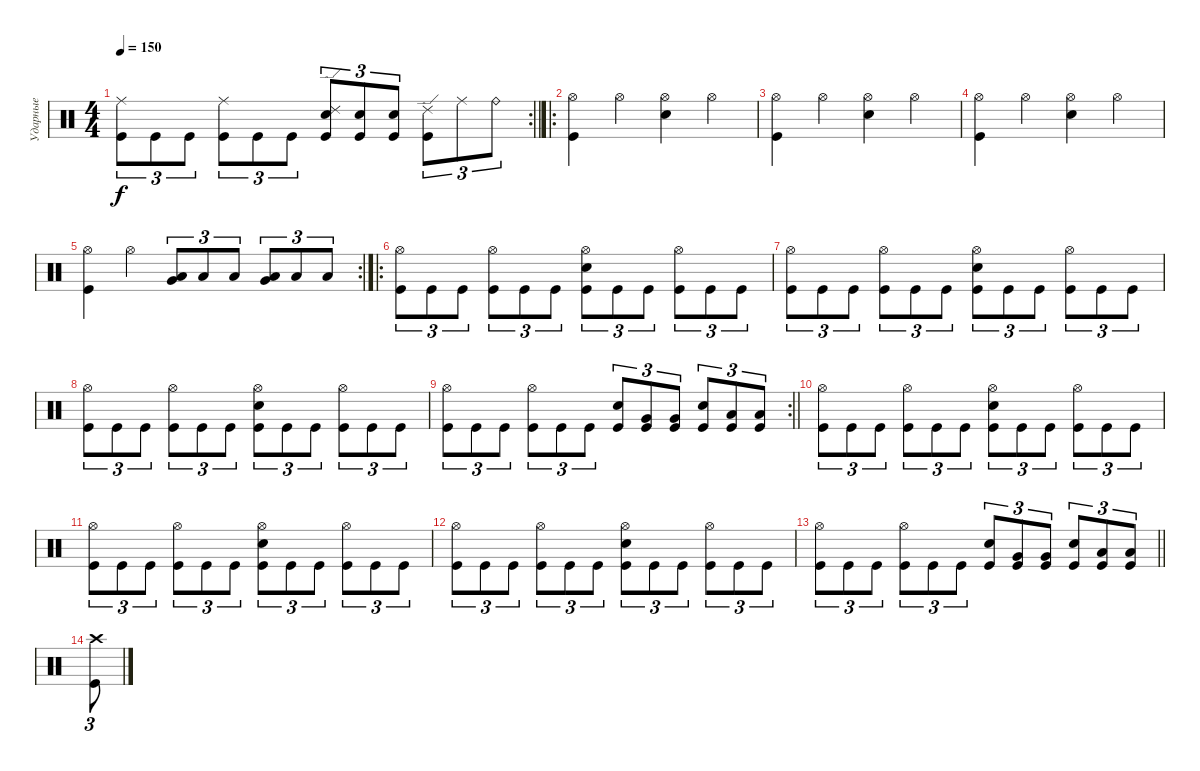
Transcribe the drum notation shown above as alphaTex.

\track ("Ударные" "Ударные") {instrument percussion}
\staff {score}
\articulation defaults
\rc 2
\ts (4 4)
\tempo 150
\clef neutral
\barLineRight lightlight
\ks c
("Ride (middle)" "Kick (hit)").8{tu (3 2) dy f} "Kick (hit)".8{tu (3 2)} "Kick (hit)".8{tu (3 2)} ("Ride (middle)" "Kick (hit)").8{tu (3 2)} "Kick (hit)".8{tu (3 2)} "Kick (hit)".8{tu (3 2)} ("Ride (edge) 2" "Electric Snare (hit)" "Kick (hit)").8{tu (3 2)} ("Electric Snare (hit)" "Kick (hit)").8{tu (3 2)} ("Electric Snare (hit)" "Kick (hit)").8{tu (3 2)} ("Ride (edge) 2" "Kick (hit)").8{tu (3 2)} "Ride (middle)".8{tu (3 2)} "Ride (bell)".8{tu (3 2)} |
\ro
\section ("" " ")
("Kick (hit)" "Hi-Hat (open)").4 "Hi-Hat (open)".4 ("Electric Snare (hit)" "Hi-Hat (open)").4 "Hi-Hat (open)".4 |
("Kick (hit)" "Hi-Hat (open)").4 "Hi-Hat (open)".4 ("Electric Snare (hit)" "Hi-Hat (open)").4 "Hi-Hat (open)".4 |
("Kick (hit)" "Hi-Hat (open)").4 "Hi-Hat (open)".4 ("Electric Snare (hit)" "Hi-Hat (open)").4 "Hi-Hat (open)".4 |
\rc 2
("Kick (hit)" "Hi-Hat (open)").4 "Hi-Hat (open)".4 ("Very Low Tom (hit)" "Low Floor Tom (hit)").8{tu (3 2)} "Low Floor Tom (hit)".8{tu (3 2)} "Low Floor Tom (hit)".8{tu (3 2)} ("Very Low Tom (hit)" "Low Floor Tom (hit)").8{tu (3 2)} "Low Floor Tom (hit)".8{tu (3 2)} "Low Floor Tom (hit)".8{tu (3 2)} |
\ro
("Hi-Hat (open)" "Kick (hit)").8{tu (3 2)} "Kick (hit)".8{tu (3 2)} "Kick (hit)".8{tu (3 2)} ("Hi-Hat (open)" "Kick (hit)").8{tu (3 2)} "Kick (hit)".8{tu (3 2)} "Kick (hit)".8{tu (3 2)} ("Electric Snare (hit)" "Hi-Hat (open)" "Kick (hit)").8{tu (3 2)} "Kick (hit)".8{tu (3 2)} "Kick (hit)".8{tu (3 2)} ("Hi-Hat (open)" "Kick (hit)").8{tu (3 2)} "Kick (hit)".8{tu (3 2)} "Kick (hit)".8{tu (3 2)} |
("Hi-Hat (open)" "Kick (hit)").8{tu (3 2)} "Kick (hit)".8{tu (3 2)} "Kick (hit)".8{tu (3 2)} ("Hi-Hat (open)" "Kick (hit)").8{tu (3 2)} "Kick (hit)".8{tu (3 2)} "Kick (hit)".8{tu (3 2)} ("Electric Snare (hit)" "Hi-Hat (open)" "Kick (hit)").8{tu (3 2)} "Kick (hit)".8{tu (3 2)} "Kick (hit)".8{tu (3 2)} ("Hi-Hat (open)" "Kick (hit)").8{tu (3 2)} "Kick (hit)".8{tu (3 2)} "Kick (hit)".8{tu (3 2)} |
("Hi-Hat (open)" "Kick (hit)").8{tu (3 2)} "Kick (hit)".8{tu (3 2)} "Kick (hit)".8{tu (3 2)} ("Hi-Hat (open)" "Kick (hit)").8{tu (3 2)} "Kick (hit)".8{tu (3 2)} "Kick (hit)".8{tu (3 2)} ("Electric Snare (hit)" "Hi-Hat (open)" "Kick (hit)").8{tu (3 2)} "Kick (hit)".8{tu (3 2)} "Kick (hit)".8{tu (3 2)} ("Hi-Hat (open)" "Kick (hit)").8{tu (3 2)} "Kick (hit)".8{tu (3 2)} "Kick (hit)".8{tu (3 2)} |
\rc 2
\barLineRight lightlight
("Hi-Hat (open)" "Kick (hit)").8{tu (3 2)} "Kick (hit)".8{tu (3 2)} "Kick (hit)".8{tu (3 2)} ("Hi-Hat (open)" "Kick (hit)").8{tu (3 2)} "Kick (hit)".8{tu (3 2)} "Kick (hit)".8{tu (3 2)} ("Electric Snare (hit)" "Kick (hit)").8{tu (3 2)} ("Very Low Tom (hit)" "Kick (hit)").8{tu (3 2)} ("Very Low Tom (hit)" "Kick (hit)").8{tu (3 2)} ("Electric Snare (hit)" "Kick (hit)").8{tu (3 2)} ("Low Floor Tom (hit)" "Kick (hit)").8{tu (3 2)} ("Low Floor Tom (hit)" "Kick (hit)").8{tu (3 2)} |
("Hi-Hat (open)" "Kick (hit)").8{tu (3 2)} "Kick (hit)".8{tu (3 2)} "Kick (hit)".8{tu (3 2)} ("Hi-Hat (open)" "Kick (hit)").8{tu (3 2)} "Kick (hit)".8{tu (3 2)} "Kick (hit)".8{tu (3 2)} ("Electric Snare (hit)" "Hi-Hat (open)" "Kick (hit)").8{tu (3 2)} "Kick (hit)".8{tu (3 2)} "Kick (hit)".8{tu (3 2)} ("Hi-Hat (open)" "Kick (hit)").8{tu (3 2)} "Kick (hit)".8{tu (3 2)} "Kick (hit)".8{tu (3 2)} |
("Hi-Hat (open)" "Kick (hit)").8{tu (3 2)} "Kick (hit)".8{tu (3 2)} "Kick (hit)".8{tu (3 2)} ("Hi-Hat (open)" "Kick (hit)").8{tu (3 2)} "Kick (hit)".8{tu (3 2)} "Kick (hit)".8{tu (3 2)} ("Electric Snare (hit)" "Hi-Hat (open)" "Kick (hit)").8{tu (3 2)} "Kick (hit)".8{tu (3 2)} "Kick (hit)".8{tu (3 2)} ("Hi-Hat (open)" "Kick (hit)").8{tu (3 2)} "Kick (hit)".8{tu (3 2)} "Kick (hit)".8{tu (3 2)} |
("Hi-Hat (open)" "Kick (hit)").8{tu (3 2)} "Kick (hit)".8{tu (3 2)} "Kick (hit)".8{tu (3 2)} ("Hi-Hat (open)" "Kick (hit)").8{tu (3 2)} "Kick (hit)".8{tu (3 2)} "Kick (hit)".8{tu (3 2)} ("Electric Snare (hit)" "Hi-Hat (open)" "Kick (hit)").8{tu (3 2)} "Kick (hit)".8{tu (3 2)} "Kick (hit)".8{tu (3 2)} ("Hi-Hat (open)" "Kick (hit)").8{tu (3 2)} "Kick (hit)".8{tu (3 2)} "Kick (hit)".8{tu (3 2)} |
\barLineRight lightlight
("Hi-Hat (open)" "Kick (hit)").8{tu (3 2)} "Kick (hit)".8{tu (3 2)} "Kick (hit)".8{tu (3 2)} ("Hi-Hat (open)" "Kick (hit)").8{tu (3 2)} "Kick (hit)".8{tu (3 2)} "Kick (hit)".8{tu (3 2)} ("Electric Snare (hit)" "Kick (hit)").8{tu (3 2)} ("Very Low Tom (hit)" "Kick (hit)").8{tu (3 2)} ("Very Low Tom (hit)" "Kick (hit)").8{tu (3 2)} ("Electric Snare (hit)" "Kick (hit)").8{tu (3 2)} ("Low Floor Tom (hit)" "Kick (hit)").8{tu (3 2)} ("Low Floor Tom (hit)" "Kick (hit)").8{tu (3 2)} |
("Crash high (hit)" "Kick (hit)").8{tu (3 2)}
